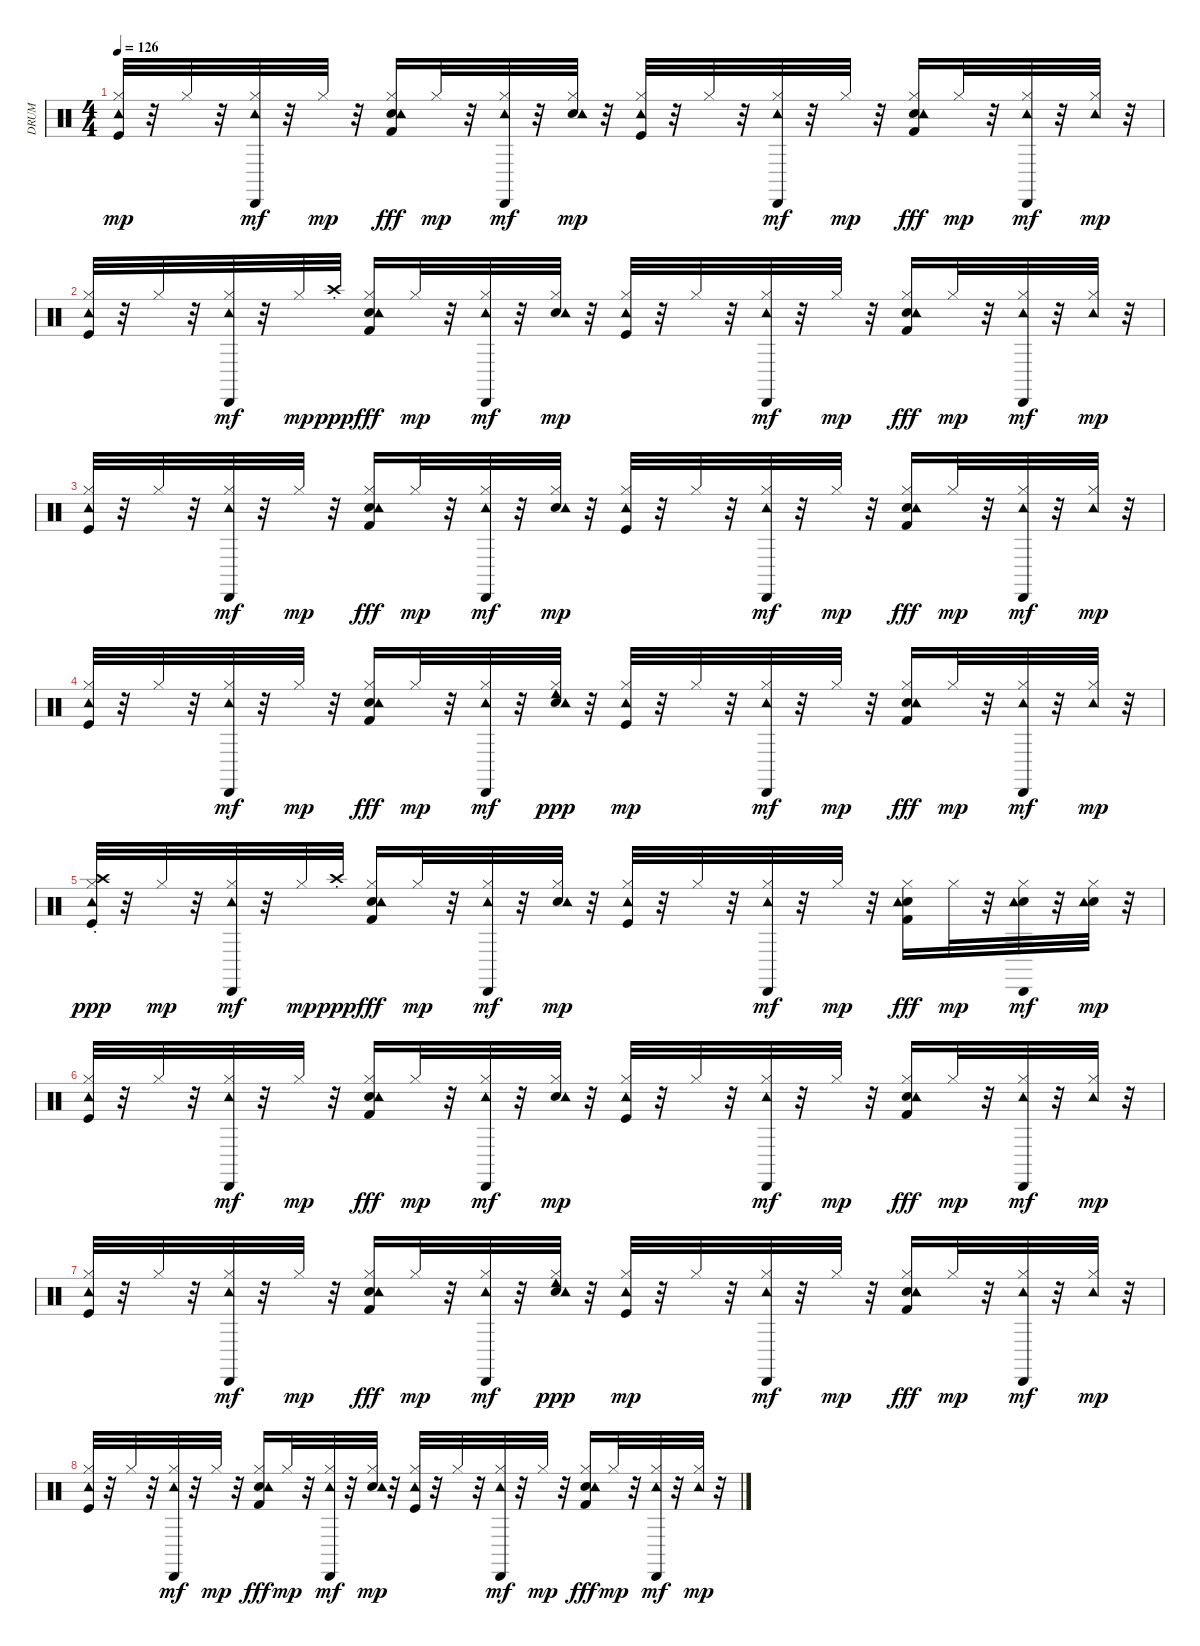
\track ("DRUM" "DRUM") {instrument percussion}
\staff {score}
\articulation defaults
\ts (4 4)
\tempo 126
\clef neutral
\ks c
("Kick (hit)" "Hi-Hat (closed)" "Tambourine (hit)").32{dy mp} r.32 "Hi-Hat (closed)".32 r.32 ("Hi-Hat (closed)" "Tambourine (hit)" "Cabasa (hit)").32{dy mf} r.32 "Hi-Hat (closed)".32{dy mp} r.32 ("Snare (hit) 2" "Hi-Hat (closed)" "Tambourine (hit)" "Kick (hit) 2").16{dy fff} "Hi-Hat (closed)".32{dy mp} r.32 ("Hi-Hat (closed)" "Tambourine (hit)" "Cabasa (hit)").32{dy mf} r.32 ("Snare (hit) 2" "Hi-Hat (closed)" "Tambourine (hit)").32{dy mp} r.32 ("Kick (hit)" "Hi-Hat (closed)" "Tambourine (hit)").32 r.32 "Hi-Hat (closed)".32 r.32 ("Hi-Hat (closed)" "Tambourine (hit)" "Cabasa (hit)").32{dy mf} r.32 "Hi-Hat (closed)".32{dy mp} r.32 ("Snare (hit) 2" "Hi-Hat (closed)" "Tambourine (hit)" "Kick (hit) 2").16{dy fff} "Hi-Hat (closed)".32{dy mp} r.32 ("Hi-Hat (closed)" "Tambourine (hit)" "Cabasa (hit)").32{dy mf} r.32 ("Hi-Hat (closed)" "Tambourine (hit)").32{dy mp} r.32 |
("Kick (hit)" "Hi-Hat (closed)" "Tambourine (hit)").32 r.32 "Hi-Hat (closed)".32 r.32 ("Hi-Hat (closed)" "Tambourine (hit)" "Cabasa (hit)").32{dy mf} r.32 "Hi-Hat (closed)".32{dy mp} "Crash high (choke)".32{dy ppp} ("Snare (hit) 2" "Hi-Hat (closed)" "Tambourine (hit)" "Kick (hit) 2").16{dy fff} "Hi-Hat (closed)".32{dy mp} r.32 ("Hi-Hat (closed)" "Tambourine (hit)" "Cabasa (hit)").32{dy mf} r.32 ("Snare (hit) 2" "Hi-Hat (closed)" "Tambourine (hit)").32{dy mp} r.32 ("Kick (hit)" "Hi-Hat (closed)" "Tambourine (hit)").32 r.32 "Hi-Hat (closed)".32 r.32 ("Hi-Hat (closed)" "Tambourine (hit)" "Cabasa (hit)").32{dy mf} r.32 "Hi-Hat (closed)".32{dy mp} r.32 ("Snare (hit) 2" "Hi-Hat (closed)" "Tambourine (hit)" "Kick (hit) 2").16{dy fff} "Hi-Hat (closed)".32{dy mp} r.32 ("Hi-Hat (closed)" "Tambourine (hit)" "Cabasa (hit)").32{dy mf} r.32 ("Hi-Hat (closed)" "Tambourine (hit)").32{dy mp} r.32 |
("Kick (hit)" "Hi-Hat (closed)" "Tambourine (hit)").32 r.32 "Hi-Hat (closed)".32 r.32 ("Hi-Hat (closed)" "Tambourine (hit)" "Cabasa (hit)").32{dy mf} r.32 "Hi-Hat (closed)".32{dy mp} r.32 ("Snare (hit) 2" "Hi-Hat (closed)" "Tambourine (hit)" "Kick (hit) 2").16{dy fff} "Hi-Hat (closed)".32{dy mp} r.32 ("Hi-Hat (closed)" "Tambourine (hit)" "Cabasa (hit)").32{dy mf} r.32 ("Snare (hit) 2" "Hi-Hat (closed)" "Tambourine (hit)").32{dy mp} r.32 ("Kick (hit)" "Hi-Hat (closed)" "Tambourine (hit)").32 r.32 "Hi-Hat (closed)".32 r.32 ("Hi-Hat (closed)" "Tambourine (hit)" "Cabasa (hit)").32{dy mf} r.32 "Hi-Hat (closed)".32{dy mp} r.32 ("Snare (hit) 2" "Hi-Hat (closed)" "Tambourine (hit)" "Kick (hit) 2").16{dy fff} "Hi-Hat (closed)".32{dy mp} r.32 ("Hi-Hat (closed)" "Tambourine (hit)" "Cabasa (hit)").32{dy mf} r.32 ("Hi-Hat (closed)" "Tambourine (hit)").32{dy mp} r.32 |
("Kick (hit)" "Hi-Hat (closed)" "Tambourine (hit)").32 r.32 "Hi-Hat (closed)".32 r.32 ("Hi-Hat (closed)" "Tambourine (hit)" "Cabasa (hit)").32{dy mf} r.32 "Hi-Hat (closed)".32{dy mp} r.32 ("Snare (hit) 2" "Hi-Hat (closed)" "Tambourine (hit)" "Kick (hit) 2").16{dy fff} "Hi-Hat (closed)".32{dy mp} r.32 ("Hi-Hat (closed)" "Tambourine (hit)" "Cabasa (hit)").32{dy mf} r.32 ("Snare (hit) 2" "Hi-Hat (closed)" "Tambourine (hit)" "Cowbell low (hit)").32{dy ppp} r.32 ("Kick (hit)" "Hi-Hat (closed)" "Tambourine (hit)").32{dy mp} r.32 "Hi-Hat (closed)".32 r.32 ("Hi-Hat (closed)" "Tambourine (hit)" "Cabasa (hit)").32{dy mf} r.32 "Hi-Hat (closed)".32{dy mp} r.32 ("Snare (hit) 2" "Hi-Hat (closed)" "Tambourine (hit)" "Kick (hit) 2").16{dy fff} "Hi-Hat (closed)".32{dy mp} r.32 ("Hi-Hat (closed)" "Tambourine (hit)" "Cabasa (hit)").32{dy mf} r.32 ("Hi-Hat (closed)" "Tambourine (hit)").32{dy mp} r.32 |
("Kick (hit)" "Hi-Hat (closed)" "Tambourine (hit)" "Crash high (choke)").32{dy ppp} r.32 "Hi-Hat (closed)".32{dy mp} r.32 ("Hi-Hat (closed)" "Tambourine (hit)" "Cabasa (hit)").32{dy mf} r.32 "Hi-Hat (closed)".32{dy mp} "Crash high (choke)".32{dy ppp} ("Snare (hit) 2" "Hi-Hat (closed)" "Tambourine (hit)" "Kick (hit) 2").16{dy fff} "Hi-Hat (closed)".32{dy mp} r.32 ("Hi-Hat (closed)" "Tambourine (hit)" "Cabasa (hit)").32{dy mf} r.32 ("Snare (hit) 2" "Hi-Hat (closed)" "Tambourine (hit)").32{dy mp} r.32 ("Kick (hit)" "Hi-Hat (closed)" "Tambourine (hit)").32 r.32 "Hi-Hat (closed)".32 r.32 ("Hi-Hat (closed)" "Tambourine (hit)" "Cabasa (hit)").32{dy mf} r.32 "Hi-Hat (closed)".32{dy mp} r.32 ("Snare (hit) 2" "Hi-Hat (closed)" "Tambourine (hit)" "Kick (hit) 2").16{dy fff} "Hi-Hat (closed)".32{dy mp} r.32 ("Snare (hit) 2" "Hi-Hat (closed)" "Tambourine (hit)" "Cabasa (hit)").32{dy mf} r.32 ("Snare (hit) 2" "Hi-Hat (closed)" "Tambourine (hit)").32{dy mp} r.32 |
("Kick (hit)" "Hi-Hat (closed)" "Tambourine (hit)").32 r.32 "Hi-Hat (closed)".32 r.32 ("Hi-Hat (closed)" "Tambourine (hit)" "Cabasa (hit)").32{dy mf} r.32 "Hi-Hat (closed)".32{dy mp} r.32 ("Snare (hit) 2" "Hi-Hat (closed)" "Tambourine (hit)" "Kick (hit) 2").16{dy fff} "Hi-Hat (closed)".32{dy mp} r.32 ("Hi-Hat (closed)" "Tambourine (hit)" "Cabasa (hit)").32{dy mf} r.32 ("Snare (hit) 2" "Hi-Hat (closed)" "Tambourine (hit)").32{dy mp} r.32 ("Kick (hit)" "Hi-Hat (closed)" "Tambourine (hit)").32 r.32 "Hi-Hat (closed)".32 r.32 ("Hi-Hat (closed)" "Tambourine (hit)" "Cabasa (hit)").32{dy mf} r.32 "Hi-Hat (closed)".32{dy mp} r.32 ("Snare (hit) 2" "Hi-Hat (closed)" "Tambourine (hit)" "Kick (hit) 2").16{dy fff} "Hi-Hat (closed)".32{dy mp} r.32 ("Hi-Hat (closed)" "Tambourine (hit)" "Cabasa (hit)").32{dy mf} r.32 ("Hi-Hat (closed)" "Tambourine (hit)").32{dy mp} r.32 |
("Kick (hit)" "Hi-Hat (closed)" "Tambourine (hit)").32 r.32 "Hi-Hat (closed)".32 r.32 ("Hi-Hat (closed)" "Tambourine (hit)" "Cabasa (hit)").32{dy mf} r.32 "Hi-Hat (closed)".32{dy mp} r.32 ("Snare (hit) 2" "Hi-Hat (closed)" "Tambourine (hit)" "Kick (hit) 2").16{dy fff} "Hi-Hat (closed)".32{dy mp} r.32 ("Hi-Hat (closed)" "Tambourine (hit)" "Cabasa (hit)").32{dy mf} r.32 ("Snare (hit) 2" "Hi-Hat (closed)" "Tambourine (hit)" "Cowbell low (hit)").32{dy ppp} r.32 ("Kick (hit)" "Hi-Hat (closed)" "Tambourine (hit)").32{dy mp} r.32 "Hi-Hat (closed)".32 r.32 ("Hi-Hat (closed)" "Tambourine (hit)" "Cabasa (hit)").32{dy mf} r.32 "Hi-Hat (closed)".32{dy mp} r.32 ("Snare (hit) 2" "Hi-Hat (closed)" "Tambourine (hit)" "Kick (hit) 2").16{dy fff} "Hi-Hat (closed)".32{dy mp} r.32 ("Hi-Hat (closed)" "Tambourine (hit)" "Cabasa (hit)").32{dy mf} r.32 ("Hi-Hat (closed)" "Tambourine (hit)").32{dy mp} r.32 |
("Kick (hit)" "Hi-Hat (closed)" "Tambourine (hit)").32 r.32 "Hi-Hat (closed)".32 r.32 ("Hi-Hat (closed)" "Tambourine (hit)" "Cabasa (hit)").32{dy mf} r.32 "Hi-Hat (closed)".32{dy mp} r.32 ("Snare (hit) 2" "Hi-Hat (closed)" "Tambourine (hit)" "Kick (hit) 2").16{dy fff} "Hi-Hat (closed)".32{dy mp} r.32 ("Hi-Hat (closed)" "Tambourine (hit)" "Cabasa (hit)").32{dy mf} r.32 ("Snare (hit) 2" "Hi-Hat (closed)" "Tambourine (hit)").32{dy mp} r.32 ("Kick (hit)" "Hi-Hat (closed)" "Tambourine (hit)").32 r.32 "Hi-Hat (closed)".32 r.32 ("Hi-Hat (closed)" "Tambourine (hit)" "Cabasa (hit)").32{dy mf} r.32 "Hi-Hat (closed)".32{dy mp} r.32 ("Snare (hit) 2" "Hi-Hat (closed)" "Tambourine (hit)" "Kick (hit) 2").16{dy fff} "Hi-Hat (closed)".32{dy mp} r.32 ("Hi-Hat (closed)" "Tambourine (hit)" "Cabasa (hit)").32{dy mf} r.32 ("Hi-Hat (closed)" "Tambourine (hit)").32{dy mp} r.32
